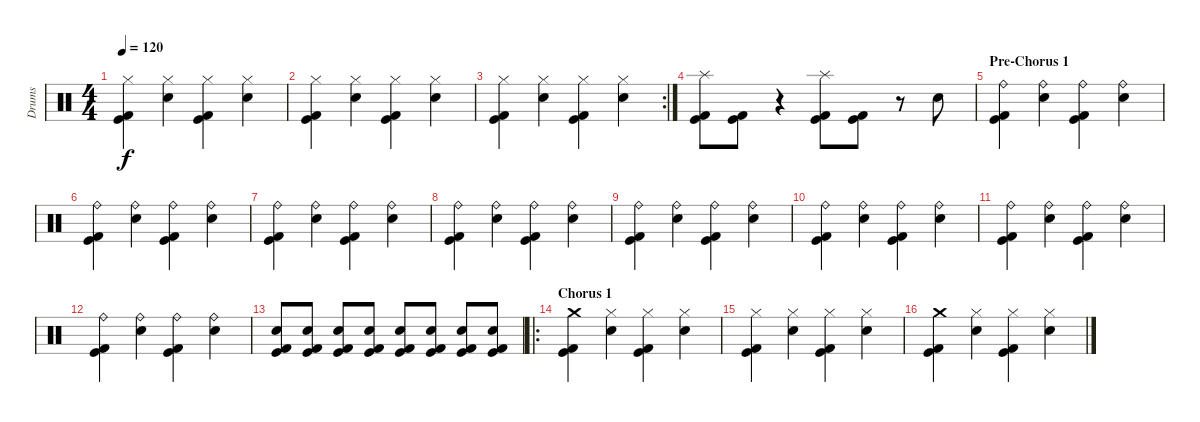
\track ("Drums" "Drums") {instrument percussion}
\staff {score}
\articulation defaults
\ts (4 4)
\tempo 120
\clef neutral
\ks c
("Kick (hit)" "Kick (hit) 2" "Hi-Hat (closed)").4{dy f} ("Snare (hit) 2" "Hi-Hat (closed)").4 ("Kick (hit)" "Kick (hit) 2" "Hi-Hat (closed)").4 ("Snare (hit) 2" "Hi-Hat (closed)").4 |
("Kick (hit)" "Kick (hit) 2" "Hi-Hat (closed)").4 ("Snare (hit) 2" "Hi-Hat (closed)").4 ("Kick (hit)" "Kick (hit) 2" "Hi-Hat (closed)").4 ("Snare (hit) 2" "Hi-Hat (closed)").4 |
\rc 2
("Kick (hit)" "Kick (hit) 2" "Hi-Hat (closed)").4 ("Snare (hit) 2" "Hi-Hat (closed)").4 ("Kick (hit)" "Kick (hit) 2" "Hi-Hat (closed)").4 ("Snare (hit) 2" "Hi-Hat (closed)").4 |
("Kick (hit)" "Kick (hit) 2" "Splash (hit)").8 ("Kick (hit)" "Kick (hit) 2").8 r.4 ("Kick (hit)" "Kick (hit) 2" "Splash (hit)").8 ("Kick (hit)" "Kick (hit) 2").8 r.8 "Snare (hit) 2".8 |
\section ("" "Pre-Chorus 1")
("Kick (hit)" "Kick (hit) 2" "Ride (bell)").4 ("Snare (hit) 2" "Ride (bell)").4 ("Kick (hit)" "Kick (hit) 2" "Ride (bell)").4 ("Snare (hit) 2" "Ride (bell)").4 |
("Kick (hit)" "Kick (hit) 2" "Ride (bell)").4 ("Snare (hit) 2" "Ride (bell)").4 ("Kick (hit)" "Kick (hit) 2" "Ride (bell)").4 ("Snare (hit) 2" "Ride (bell)").4 |
("Kick (hit)" "Kick (hit) 2" "Ride (bell)").4 ("Snare (hit) 2" "Ride (bell)").4 ("Kick (hit)" "Kick (hit) 2" "Ride (bell)").4 ("Snare (hit) 2" "Ride (bell)").4 |
("Kick (hit)" "Kick (hit) 2" "Ride (bell)").4 ("Snare (hit) 2" "Ride (bell)").4 ("Kick (hit)" "Kick (hit) 2" "Ride (bell)").4 ("Snare (hit) 2" "Ride (bell)").4 |
("Kick (hit)" "Kick (hit) 2" "Ride (bell)").4 ("Snare (hit) 2" "Ride (bell)").4 ("Kick (hit)" "Kick (hit) 2" "Ride (bell)").4 ("Snare (hit) 2" "Ride (bell)").4 |
("Kick (hit)" "Kick (hit) 2" "Ride (bell)").4 ("Snare (hit) 2" "Ride (bell)").4 ("Kick (hit)" "Kick (hit) 2" "Ride (bell)").4 ("Snare (hit) 2" "Ride (bell)").4 |
("Kick (hit)" "Kick (hit) 2" "Ride (bell)").4 ("Snare (hit) 2" "Ride (bell)").4 ("Kick (hit)" "Kick (hit) 2" "Ride (bell)").4 ("Snare (hit) 2" "Ride (bell)").4 |
("Kick (hit)" "Kick (hit) 2" "Ride (bell)").4 ("Snare (hit) 2" "Ride (bell)").4 ("Kick (hit)" "Kick (hit) 2" "Ride (bell)").4 ("Snare (hit) 2" "Ride (bell)").4 |
("Kick (hit)" "Kick (hit) 2" "Snare (hit) 2").8 ("Kick (hit)" "Kick (hit) 2" "Snare (hit) 2").8 ("Kick (hit)" "Kick (hit) 2" "Snare (hit) 2").8 ("Kick (hit)" "Kick (hit) 2" "Snare (hit) 2").8 ("Kick (hit)" "Kick (hit) 2" "Snare (hit) 2").8 ("Kick (hit)" "Kick (hit) 2" "Snare (hit) 2").8 ("Kick (hit)" "Kick (hit) 2" "Snare (hit) 2").8 ("Kick (hit)" "Kick (hit) 2" "Snare (hit) 2").8 |
\ro
\section ("" "Chorus 1")
("Kick (hit)" "Kick (hit) 2" "Crash medium (hit)").4 ("Snare (hit) 2" "Hi-Hat (closed)").4 ("Kick (hit)" "Kick (hit) 2" "Hi-Hat (closed)").4 ("Snare (hit) 2" "Hi-Hat (closed)").4 |
("Kick (hit)" "Kick (hit) 2" "Hi-Hat (closed)").4 ("Snare (hit) 2" "Hi-Hat (closed)").4 ("Kick (hit)" "Kick (hit) 2" "Hi-Hat (closed)").4 ("Snare (hit) 2" "Hi-Hat (closed)").4 |
("Kick (hit)" "Kick (hit) 2" "Crash medium (hit)").4 ("Snare (hit) 2" "Hi-Hat (closed)").4 ("Kick (hit)" "Kick (hit) 2" "Hi-Hat (closed)").4 ("Snare (hit) 2" "Hi-Hat (closed)").4
